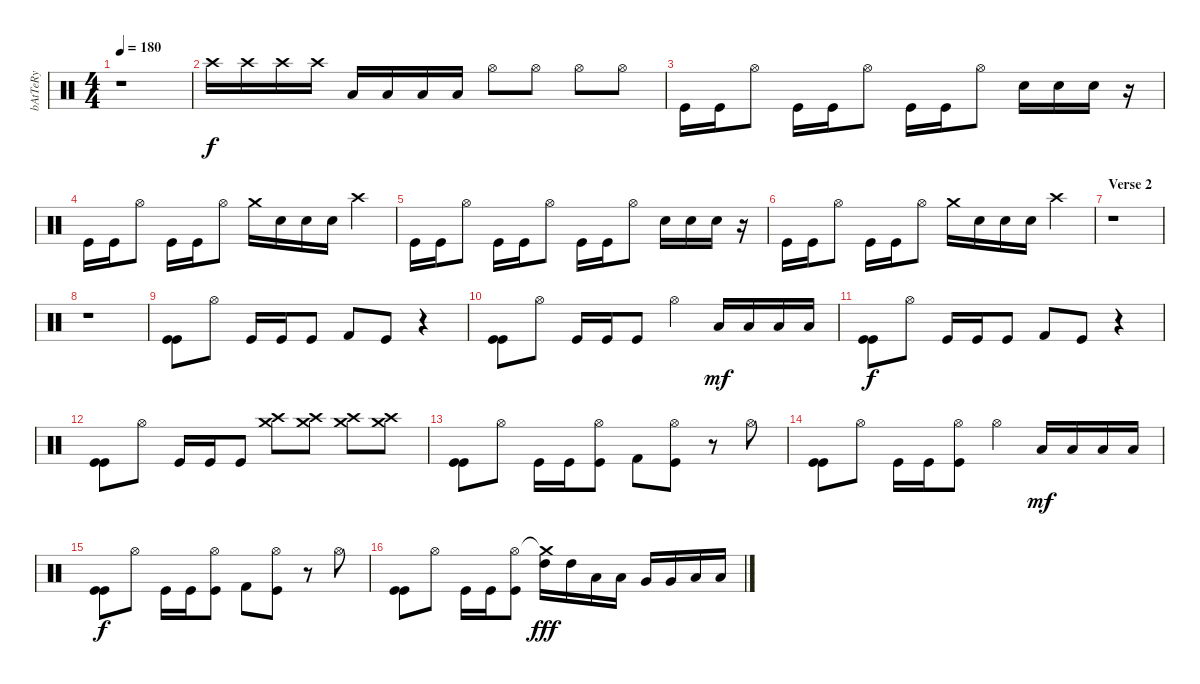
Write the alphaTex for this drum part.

\track ("bAtTeRy" "bAtTeRy") {instrument percussion}
\staff {score}
\articulation defaults
\ts (4 4)
\tempo 180
\clef neutral
\ks c
r.1{dy f} |
"Crash high (hit)".16 "Crash high (hit)".16 "Crash high (hit)".16 "Crash high (hit)".16 "Low Tom (hit)".16 "Low Tom (hit)".16 "Low Tom (hit)".16 "Low Tom (hit)".16 "Hi-Hat (open)".8 "Hi-Hat (open)".8 "Hi-Hat (open)".8 "Hi-Hat (open)".8 |
"Kick (hit)".16 "Kick (hit)".16 "Hi-Hat (open)".8 "Kick (hit)".16 "Kick (hit)".16 "Hi-Hat (open)".8 "Kick (hit)".16 "Kick (hit)".16 "Hi-Hat (open)".8 "Electric Snare (hit)".16 "Electric Snare (hit)".16 "Electric Snare (hit)".16 r.16 |
"Kick (hit)".16 "Kick (hit)".16 "Hi-Hat (open)".8 "Kick (hit)".16 "Kick (hit)".16 "Hi-Hat (open)".8 "Crash medium (hit)".16 "Electric Snare (hit)".16 "Electric Snare (hit)".16 "Electric Snare (hit)".16 "Crash high (hit)".4 |
"Kick (hit)".16 "Kick (hit)".16 "Hi-Hat (open)".8 "Kick (hit)".16 "Kick (hit)".16 "Hi-Hat (open)".8 "Kick (hit)".16 "Kick (hit)".16 "Hi-Hat (open)".8 "Electric Snare (hit)".16 "Electric Snare (hit)".16 "Electric Snare (hit)".16 r.16 |
"Kick (hit)".16 "Kick (hit)".16 "Hi-Hat (open)".8 "Kick (hit)".16 "Kick (hit)".16 "Hi-Hat (open)".8 "Crash medium (hit)".16 "Electric Snare (hit)".16 "Electric Snare (hit)".16 "Electric Snare (hit)".16 "Crash high (hit)".4 |
\section ("" "Verse 2")
r.1 |
r.1 |
("Kick (hit)" "Kick (hit)").8 "Hi-Hat (open)".8 "Kick (hit)".16 "Kick (hit)".16 "Kick (hit)".8 "Kick (hit) 2".8 "Kick (hit)".8 r.4 |
("Kick (hit)" "Kick (hit)").8 "Hi-Hat (open)".8 "Kick (hit)".16 "Kick (hit)".16 "Kick (hit)".8 "Hi-Hat (open)".4 "Low Tom (hit)".16{dy mf} "Low Tom (hit)".16 "Low Tom (hit)".16 "Low Tom (hit)".16 |
("Kick (hit)" "Kick (hit)").8{dy f} "Hi-Hat (open)".8 "Kick (hit)".16 "Kick (hit)".16 "Kick (hit)".8 "Kick (hit) 2".8 "Kick (hit)".8 r.4 |
("Kick (hit)" "Kick (hit)").8 "Hi-Hat (open)".8 "Kick (hit)".16 "Kick (hit)".16 "Kick (hit)".8 ("Crash medium (hit)" "Crash high (hit)").8 ("Crash medium (hit)" "Crash high (hit)").8 ("Crash medium (hit)" "Crash high (hit)").8 ("Crash medium (hit)" "Crash high (hit)").8 |
("Kick (hit)" "Kick (hit)").8 "Hi-Hat (open)".8 "Kick (hit)".16 "Kick (hit)".16 ("Hi-Hat (open)" "Kick (hit)").8 "Kick (hit) 2".8 ("Hi-Hat (open)" "Kick (hit)").8 r.8 "Hi-Hat (open)".8 |
("Kick (hit)" "Kick (hit)").8 "Hi-Hat (open)".8 "Kick (hit)".16 "Kick (hit)".16 ("Hi-Hat (open)" "Kick (hit)").8 "Hi-Hat (open)".4 "Low Tom (hit)".16{dy mf} "Low Tom (hit)".16 "Low Tom (hit)".16 "Low Tom (hit)".16 |
("Kick (hit)" "Kick (hit)").8{dy f} "Hi-Hat (open)".8 "Kick (hit)".16 "Kick (hit)".16 ("Hi-Hat (open)" "Kick (hit)").8 "Kick (hit) 2".8 ("Hi-Hat (open)" "Kick (hit)").8 r.8 "Hi-Hat (open)".8 |
("Kick (hit)" "Kick (hit)").8 "Hi-Hat (open)".8 "Kick (hit)".16 "Kick (hit)".16 ("Hi-Hat (open)" "Kick (hit)").8 ("Crash medium (hit)"{t} "High Tom (hit)").16{dy fff} "High Tom (hit)".16 "Low Tom (hit)".16 "Low Tom (hit)".16 "Very Low Tom (hit)".16 "Very Low Tom (hit)".16 "Low Floor Tom (hit)".16 "Low Floor Tom (hit)".16
